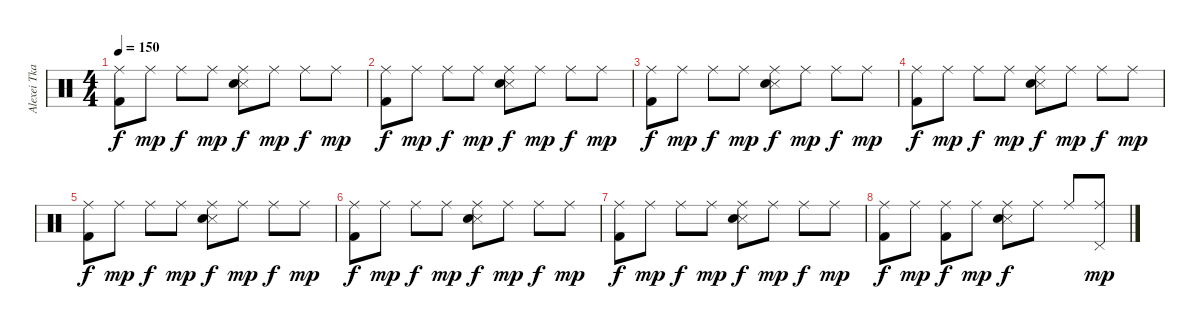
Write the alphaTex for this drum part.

\track ("Alexei Tkachevskiy " "Alexei Tka") {instrument percussion}
\staff {score}
\articulation defaults
\ts (4 4)
\tempo 150
\clef neutral
\ks c
("Ride (middle)" "Kick (hit) 2").8{dy f} "Ride (middle)".8{dy mp} "Ride (middle)".8{dy f} "Ride (middle)".8{dy mp} ("Ride (middle)" "Snare (side stick) 3" "Snare (hit) 2").8{dy f} "Ride (middle)".8{dy mp} "Ride (middle)".8{dy f} "Ride (middle)".8{dy mp} |
("Ride (middle)" "Kick (hit) 2").8{dy f} "Ride (middle)".8{dy mp} "Ride (middle)".8{dy f} "Ride (middle)".8{dy mp} ("Ride (middle)" "Snare (side stick) 3" "Snare (hit) 2").8{dy f} "Ride (middle)".8{dy mp} "Ride (middle)".8{dy f} "Ride (middle)".8{dy mp} |
("Ride (middle)" "Kick (hit) 2").8{dy f} "Ride (middle)".8{dy mp} "Ride (middle)".8{dy f} "Ride (middle)".8{dy mp} ("Ride (middle)" "Snare (side stick) 3" "Snare (hit) 2").8{dy f} "Ride (middle)".8{dy mp} "Ride (middle)".8{dy f} "Ride (middle)".8{dy mp} |
("Ride (middle)" "Kick (hit) 2").8{dy f} "Ride (middle)".8{dy mp} "Ride (middle)".8{dy f} "Ride (middle)".8{dy mp} ("Ride (middle)" "Snare (side stick) 3" "Snare (hit) 2").8{dy f} "Ride (middle)".8{dy mp} "Ride (middle)".8{dy f} "Ride (middle)".8{dy mp} |
("Ride (middle)" "Kick (hit) 2").8{dy f} "Ride (middle)".8{dy mp} "Ride (middle)".8{dy f} "Ride (middle)".8{dy mp} ("Ride (middle)" "Snare (side stick) 3" "Snare (hit) 2").8{dy f} "Ride (middle)".8{dy mp} "Ride (middle)".8{dy f} "Ride (middle)".8{dy mp} |
("Ride (middle)" "Kick (hit) 2").8{dy f} "Ride (middle)".8{dy mp} "Ride (middle)".8{dy f} "Ride (middle)".8{dy mp} ("Ride (middle)" "Snare (side stick) 3" "Snare (hit) 2").8{dy f} "Ride (middle)".8{dy mp} "Ride (middle)".8{dy f} "Ride (middle)".8{dy mp} |
("Ride (middle)" "Kick (hit) 2").8{dy f} "Ride (middle)".8{dy mp} "Ride (middle)".8{dy f} "Ride (middle)".8{dy mp} ("Ride (middle)" "Snare (side stick) 3" "Snare (hit) 2").8{dy f} "Ride (middle)".8{dy mp} "Ride (middle)".8{dy f} "Ride (middle)".8{dy mp} |
("Ride (middle)" "Kick (hit) 2").8{dy f} "Ride (middle)".8{dy mp} ("Ride (middle)" "Kick (hit) 2").8{dy f} "Ride (middle)".8{dy mp} ("Ride (middle)" "Snare (side stick) 3" "Snare (hit) 2").8{dy f} "Ride (middle)".8 "Ride (middle)".8 ("Ride (middle)" "Pedal Hi-Hat (hit)").8{dy mp}
